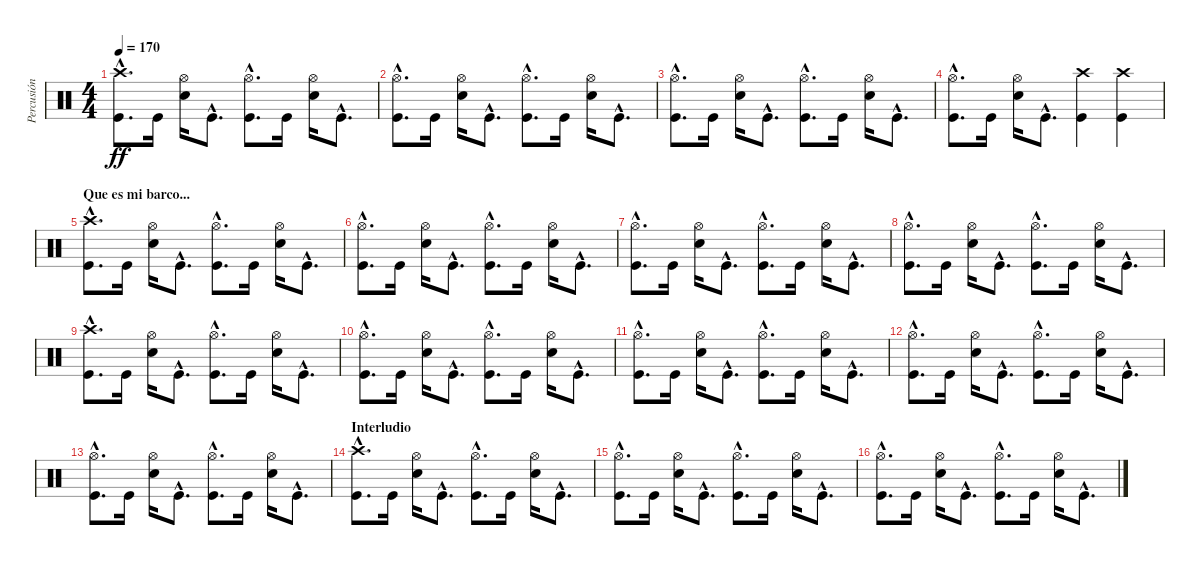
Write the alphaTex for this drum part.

\track ("Percusión" "Percusión") {instrument percussion}
\staff {score}
\articulation defaults
\ts (4 4)
\tempo 170
\clef neutral
\ks c
("Crash high (hit)"{hac} "Kick (hit)"{hac}).8{d dy ff} "Kick (hit)".16 ("Hi-Hat (open)" "Snare (hit) 2").16 "Kick (hit)"{hac}.8{d} ("Hi-Hat (open)"{hac} "Kick (hit)"{hac}).8{d} "Kick (hit)".16 ("Hi-Hat (open)" "Snare (hit) 2").16 "Kick (hit)"{hac}.8{d} |
("Hi-Hat (open)"{hac} "Kick (hit)"{hac}).8{d} "Kick (hit)".16 ("Hi-Hat (open)" "Snare (hit) 2").16 "Kick (hit)"{hac}.8{d} ("Hi-Hat (open)"{hac} "Kick (hit)"{hac}).8{d} "Kick (hit)".16 ("Hi-Hat (open)" "Snare (hit) 2").16 "Kick (hit)"{hac}.8{d} |
("Hi-Hat (open)"{hac} "Kick (hit)"{hac}).8{d} "Kick (hit)".16 ("Hi-Hat (open)" "Snare (hit) 2").16 "Kick (hit)"{hac}.8{d} ("Hi-Hat (open)"{hac} "Kick (hit)"{hac}).8{d} "Kick (hit)".16 ("Hi-Hat (open)" "Snare (hit) 2").16 "Kick (hit)"{hac}.8{d} |
("Hi-Hat (open)"{hac} "Kick (hit)"{hac}).8{d} "Kick (hit)".16 ("Hi-Hat (open)" "Snare (hit) 2").16 "Kick (hit)"{hac}.8{d} ("Crash high (hit)" "Kick (hit)").4 ("Crash high (hit)" "Kick (hit)").4 |
\section ("" "Que es mi barco...")
("Crash high (hit)"{hac} "Kick (hit)"{hac}).8{d} "Kick (hit)".16 ("Hi-Hat (open)" "Snare (hit) 2").16 "Kick (hit)"{hac}.8{d} ("Hi-Hat (open)"{hac} "Kick (hit)"{hac}).8{d} "Kick (hit)".16 ("Hi-Hat (open)" "Snare (hit) 2").16 "Kick (hit)"{hac}.8{d} |
("Hi-Hat (open)"{hac} "Kick (hit)"{hac}).8{d} "Kick (hit)".16 ("Hi-Hat (open)" "Snare (hit) 2").16 "Kick (hit)"{hac}.8{d} ("Hi-Hat (open)"{hac} "Kick (hit)"{hac}).8{d} "Kick (hit)".16 ("Hi-Hat (open)" "Snare (hit) 2").16 "Kick (hit)"{hac}.8{d} |
("Hi-Hat (open)"{hac} "Kick (hit)"{hac}).8{d} "Kick (hit)".16 ("Hi-Hat (open)" "Snare (hit) 2").16 "Kick (hit)"{hac}.8{d} ("Hi-Hat (open)"{hac} "Kick (hit)"{hac}).8{d} "Kick (hit)".16 ("Hi-Hat (open)" "Snare (hit) 2").16 "Kick (hit)"{hac}.8{d} |
("Hi-Hat (open)"{hac} "Kick (hit)"{hac}).8{d} "Kick (hit)".16 ("Hi-Hat (open)" "Snare (hit) 2").16 "Kick (hit)"{hac}.8{d} ("Hi-Hat (open)"{hac} "Kick (hit)"{hac}).8{d} "Kick (hit)".16 ("Hi-Hat (open)" "Snare (hit) 2").16 "Kick (hit)"{hac}.8{d} |
("Crash high (hit)"{hac} "Kick (hit)"{hac}).8{d} "Kick (hit)".16 ("Hi-Hat (open)" "Snare (hit) 2").16 "Kick (hit)"{hac}.8{d} ("Hi-Hat (open)"{hac} "Kick (hit)"{hac}).8{d} "Kick (hit)".16 ("Hi-Hat (open)" "Snare (hit) 2").16 "Kick (hit)"{hac}.8{d} |
("Hi-Hat (open)"{hac} "Kick (hit)"{hac}).8{d} "Kick (hit)".16 ("Hi-Hat (open)" "Snare (hit) 2").16 "Kick (hit)"{hac}.8{d} ("Hi-Hat (open)"{hac} "Kick (hit)"{hac}).8{d} "Kick (hit)".16 ("Hi-Hat (open)" "Snare (hit) 2").16 "Kick (hit)"{hac}.8{d} |
("Hi-Hat (open)"{hac} "Kick (hit)"{hac}).8{d} "Kick (hit)".16 ("Hi-Hat (open)" "Snare (hit) 2").16 "Kick (hit)"{hac}.8{d} ("Hi-Hat (open)"{hac} "Kick (hit)"{hac}).8{d} "Kick (hit)".16 ("Hi-Hat (open)" "Snare (hit) 2").16 "Kick (hit)"{hac}.8{d} |
("Hi-Hat (open)"{hac} "Kick (hit)"{hac}).8{d} "Kick (hit)".16 ("Hi-Hat (open)" "Snare (hit) 2").16 "Kick (hit)"{hac}.8{d} ("Hi-Hat (open)"{hac} "Kick (hit)"{hac}).8{d} "Kick (hit)".16 ("Hi-Hat (open)" "Snare (hit) 2").16 "Kick (hit)"{hac}.8{d} |
("Hi-Hat (open)"{hac} "Kick (hit)"{hac}).8{d} "Kick (hit)".16 ("Hi-Hat (open)" "Snare (hit) 2").16 "Kick (hit)"{hac}.8{d} ("Hi-Hat (open)"{hac} "Kick (hit)"{hac}).8{d} "Kick (hit)".16 ("Hi-Hat (open)" "Snare (hit) 2").16 "Kick (hit)"{hac}.8{d} |
\section ("" "Interludio")
("Crash high (hit)"{hac} "Kick (hit)"{hac}).8{d} "Kick (hit)".16 ("Hi-Hat (open)" "Snare (hit) 2").16 "Kick (hit)"{hac}.8{d} ("Hi-Hat (open)"{hac} "Kick (hit)"{hac}).8{d} "Kick (hit)".16 ("Hi-Hat (open)" "Snare (hit) 2").16 "Kick (hit)"{hac}.8{d} |
("Hi-Hat (open)"{hac} "Kick (hit)"{hac}).8{d} "Kick (hit)".16 ("Hi-Hat (open)" "Snare (hit) 2").16 "Kick (hit)"{hac}.8{d} ("Hi-Hat (open)"{hac} "Kick (hit)"{hac}).8{d} "Kick (hit)".16 ("Hi-Hat (open)" "Snare (hit) 2").16 "Kick (hit)"{hac}.8{d} |
("Hi-Hat (open)"{hac} "Kick (hit)"{hac}).8{d} "Kick (hit)".16 ("Hi-Hat (open)" "Snare (hit) 2").16 "Kick (hit)"{hac}.8{d} ("Hi-Hat (open)"{hac} "Kick (hit)"{hac}).8{d} "Kick (hit)".16 ("Hi-Hat (open)" "Snare (hit) 2").16 "Kick (hit)"{hac}.8{d}
